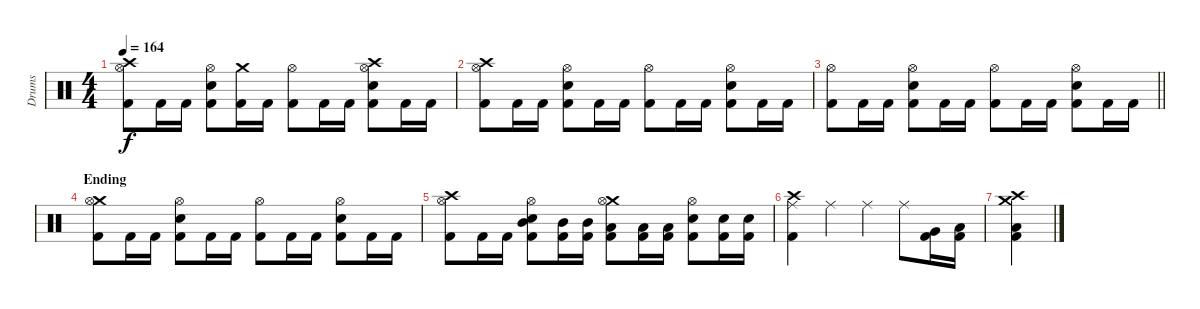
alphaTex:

\track ("Drums" "Drums") {instrument percussion}
\staff {score}
\articulation defaults
\ts (4 4)
\tempo 164
\clef neutral
\ks c
("Crash high (hit)" "Hi-Hat (open)" "Kick (hit) 2").8{dy f} "Kick (hit) 2".16 "Kick (hit) 2".16 ("Hi-Hat (open)" "Snare (hit) 2" "Kick (hit) 2").8 ("Crash medium (hit)" "Kick (hit) 2").16 "Kick (hit) 2".16 ("Hi-Hat (open)" "Kick (hit) 2").8 "Kick (hit) 2".16 "Kick (hit) 2".16 ("Crash high (hit)" "Hi-Hat (open)" "Snare (hit) 2" "Kick (hit) 2").8 "Kick (hit) 2".16 "Kick (hit) 2".16 |
("Crash high (hit)" "Hi-Hat (open)" "Kick (hit) 2").8 "Kick (hit) 2".16 "Kick (hit) 2".16 ("Hi-Hat (open)" "Snare (hit) 2" "Kick (hit) 2").8 "Kick (hit) 2".16 "Kick (hit) 2".16 ("Hi-Hat (open)" "Kick (hit) 2").8 "Kick (hit) 2".16 "Kick (hit) 2".16 ("Hi-Hat (open)" "Snare (hit) 2" "Kick (hit) 2").8 "Kick (hit) 2".16 "Kick (hit) 2".16 |
\barLineRight lightlight
("Hi-Hat (open)" "Kick (hit) 2").8 "Kick (hit) 2".16 "Kick (hit) 2".16 ("Hi-Hat (open)" "Snare (hit) 2" "Kick (hit) 2").8 "Kick (hit) 2".16 "Kick (hit) 2".16 ("Hi-Hat (open)" "Kick (hit) 2").8 "Kick (hit) 2".16 "Kick (hit) 2".16 ("Hi-Hat (open)" "Snare (hit) 2" "Kick (hit) 2").8 "Kick (hit) 2".16 "Kick (hit) 2".16 |
\section ("" "Ending")
("Crash medium (hit)" "Hi-Hat (open)" "Kick (hit) 2").8 "Kick (hit) 2".16 "Kick (hit) 2".16 ("Hi-Hat (open)" "Snare (hit) 2" "Kick (hit) 2").8 "Kick (hit) 2".16 "Kick (hit) 2".16 ("Hi-Hat (open)" "Kick (hit) 2").8 "Kick (hit) 2".16 "Kick (hit) 2".16 ("Hi-Hat (open)" "Snare (hit) 2" "Kick (hit) 2").8 "Kick (hit) 2".16 "Kick (hit) 2".16 |
("Crash high (hit)" "Hi-Hat (open)" "Kick (hit) 2").8 "Kick (hit) 2".16 "Kick (hit) 2".16 ("Hi-Hat (open)" "Mid Tom (hit)" "Snare (hit) 2" "Kick (hit) 2").8 ("Mid Tom (hit)" "Kick (hit) 2").16 ("Mid Tom (hit)" "Kick (hit) 2").16 ("Crash medium (hit)" "Hi-Hat (open)" "Low Tom (hit)" "Kick (hit) 2").8 ("Low Tom (hit)" "Kick (hit) 2").16 ("Low Tom (hit)" "Kick (hit) 2").16 ("Hi-Hat (open)" "Snare (hit) 2" "Kick (hit) 2").8 ("Snare (hit) 2" "Kick (hit) 2").16 ("Snare (hit) 2" "Kick (hit) 2").16 |
("Crash high (hit)" "Ride (middle)" "Kick (hit) 2").4 "Ride (middle)".4 "Ride (middle)".4 "Ride (middle)".8 ("Very Low Tom (hit)" "Kick (hit) 2").16 ("Low Floor Tom (hit)" "Kick (hit) 2").16 |
("Crash high (hit)" "Crash medium (hit)" "Low Floor Tom (hit)" "Kick (hit) 2").4
